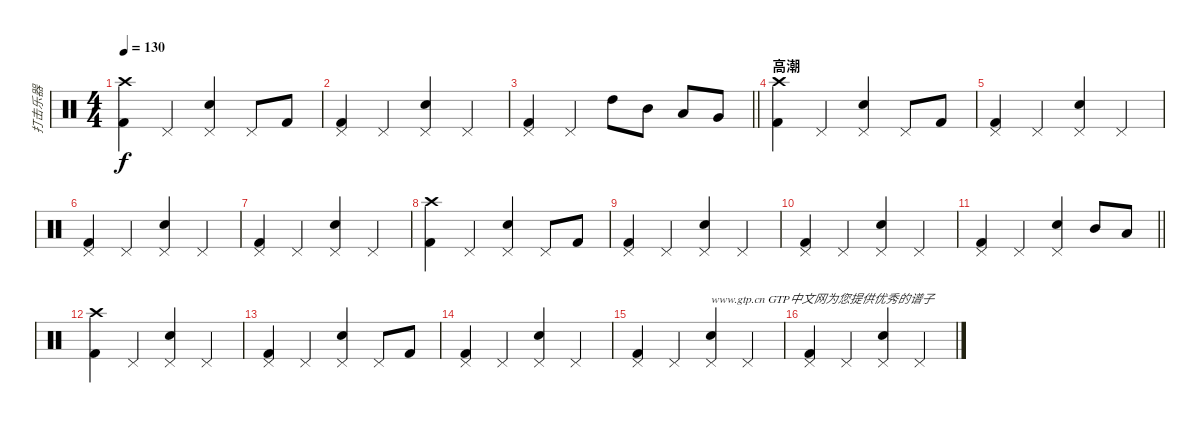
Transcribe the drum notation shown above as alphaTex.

\track ("打击乐器" "打击乐器") {instrument percussion}
\staff {score}
\articulation defaults
\ts (4 4)
\tempo 130
\clef neutral
\ks c
("Crash high (hit)" "Kick (hit) 2").4{dy f} "Pedal Hi-Hat (hit)".4 ("Pedal Hi-Hat (hit)" "Snare (hit) 2").4 "Pedal Hi-Hat (hit)".8 "Kick (hit) 2".8 |
("Pedal Hi-Hat (hit)" "Kick (hit) 2").4 "Pedal Hi-Hat (hit)".4 ("Pedal Hi-Hat (hit)" "Snare (hit) 2").4 "Pedal Hi-Hat (hit)".4 |
\barLineRight lightlight
("Pedal Hi-Hat (hit)" "Kick (hit) 2").4 "Pedal Hi-Hat (hit)".4 "High Tom (hit)".8 "Mid Tom (hit)".8 "Low Tom (hit)".8 "Very Low Tom (hit)".8 |
\section ("" "高潮")
("Crash high (hit)" "Kick (hit) 2").4 "Pedal Hi-Hat (hit)".4 ("Pedal Hi-Hat (hit)" "Snare (hit) 2").4 "Pedal Hi-Hat (hit)".8 "Kick (hit) 2".8 |
("Pedal Hi-Hat (hit)" "Kick (hit) 2").4 "Pedal Hi-Hat (hit)".4 ("Pedal Hi-Hat (hit)" "Snare (hit) 2").4 "Pedal Hi-Hat (hit)".4 |
("Pedal Hi-Hat (hit)" "Kick (hit) 2").4 "Pedal Hi-Hat (hit)".4 ("Pedal Hi-Hat (hit)" "Snare (hit) 2").4 "Pedal Hi-Hat (hit)".4 |
("Pedal Hi-Hat (hit)" "Kick (hit) 2").4 "Pedal Hi-Hat (hit)".4 ("Pedal Hi-Hat (hit)" "Snare (hit) 2").4 "Pedal Hi-Hat (hit)".4 |
("Crash high (hit)" "Kick (hit) 2").4 "Pedal Hi-Hat (hit)".4 ("Pedal Hi-Hat (hit)" "Snare (hit) 2").4 "Pedal Hi-Hat (hit)".8 "Kick (hit) 2".8 |
("Pedal Hi-Hat (hit)" "Kick (hit) 2").4 "Pedal Hi-Hat (hit)".4 ("Pedal Hi-Hat (hit)" "Snare (hit) 2").4 "Pedal Hi-Hat (hit)".4 |
("Pedal Hi-Hat (hit)" "Kick (hit) 2").4 "Pedal Hi-Hat (hit)".4 ("Pedal Hi-Hat (hit)" "Snare (hit) 2").4 "Pedal Hi-Hat (hit)".4 |
\barLineRight lightlight
("Pedal Hi-Hat (hit)" "Kick (hit) 2").4 "Pedal Hi-Hat (hit)".4 ("Pedal Hi-Hat (hit)" "Snare (hit) 2").4 "Mid Tom (hit)".8 "Low Tom (hit)".8 |
("Crash high (hit)" "Kick (hit) 2").4 "Pedal Hi-Hat (hit)".4 ("Pedal Hi-Hat (hit)" "Snare (hit) 2").4 "Pedal Hi-Hat (hit)".4 |
("Pedal Hi-Hat (hit)" "Kick (hit) 2").4 "Pedal Hi-Hat (hit)".4 ("Pedal Hi-Hat (hit)" "Snare (hit) 2").4 "Pedal Hi-Hat (hit)".8 "Kick (hit) 2".8 |
("Pedal Hi-Hat (hit)" "Kick (hit) 2").4 "Pedal Hi-Hat (hit)".4 ("Pedal Hi-Hat (hit)" "Snare (hit) 2").4 "Pedal Hi-Hat (hit)".4 |
("Pedal Hi-Hat (hit)" "Kick (hit) 2").4 "Pedal Hi-Hat (hit)".4 ("Pedal Hi-Hat (hit)" "Snare (hit) 2").4{txt "www.gtp.cn GTP中文网为您提供优秀的谱子"} "Pedal Hi-Hat (hit)".4 |
("Pedal Hi-Hat (hit)" "Kick (hit) 2").4 "Pedal Hi-Hat (hit)".4 ("Pedal Hi-Hat (hit)" "Snare (hit) 2").4 "Pedal Hi-Hat (hit)".4
